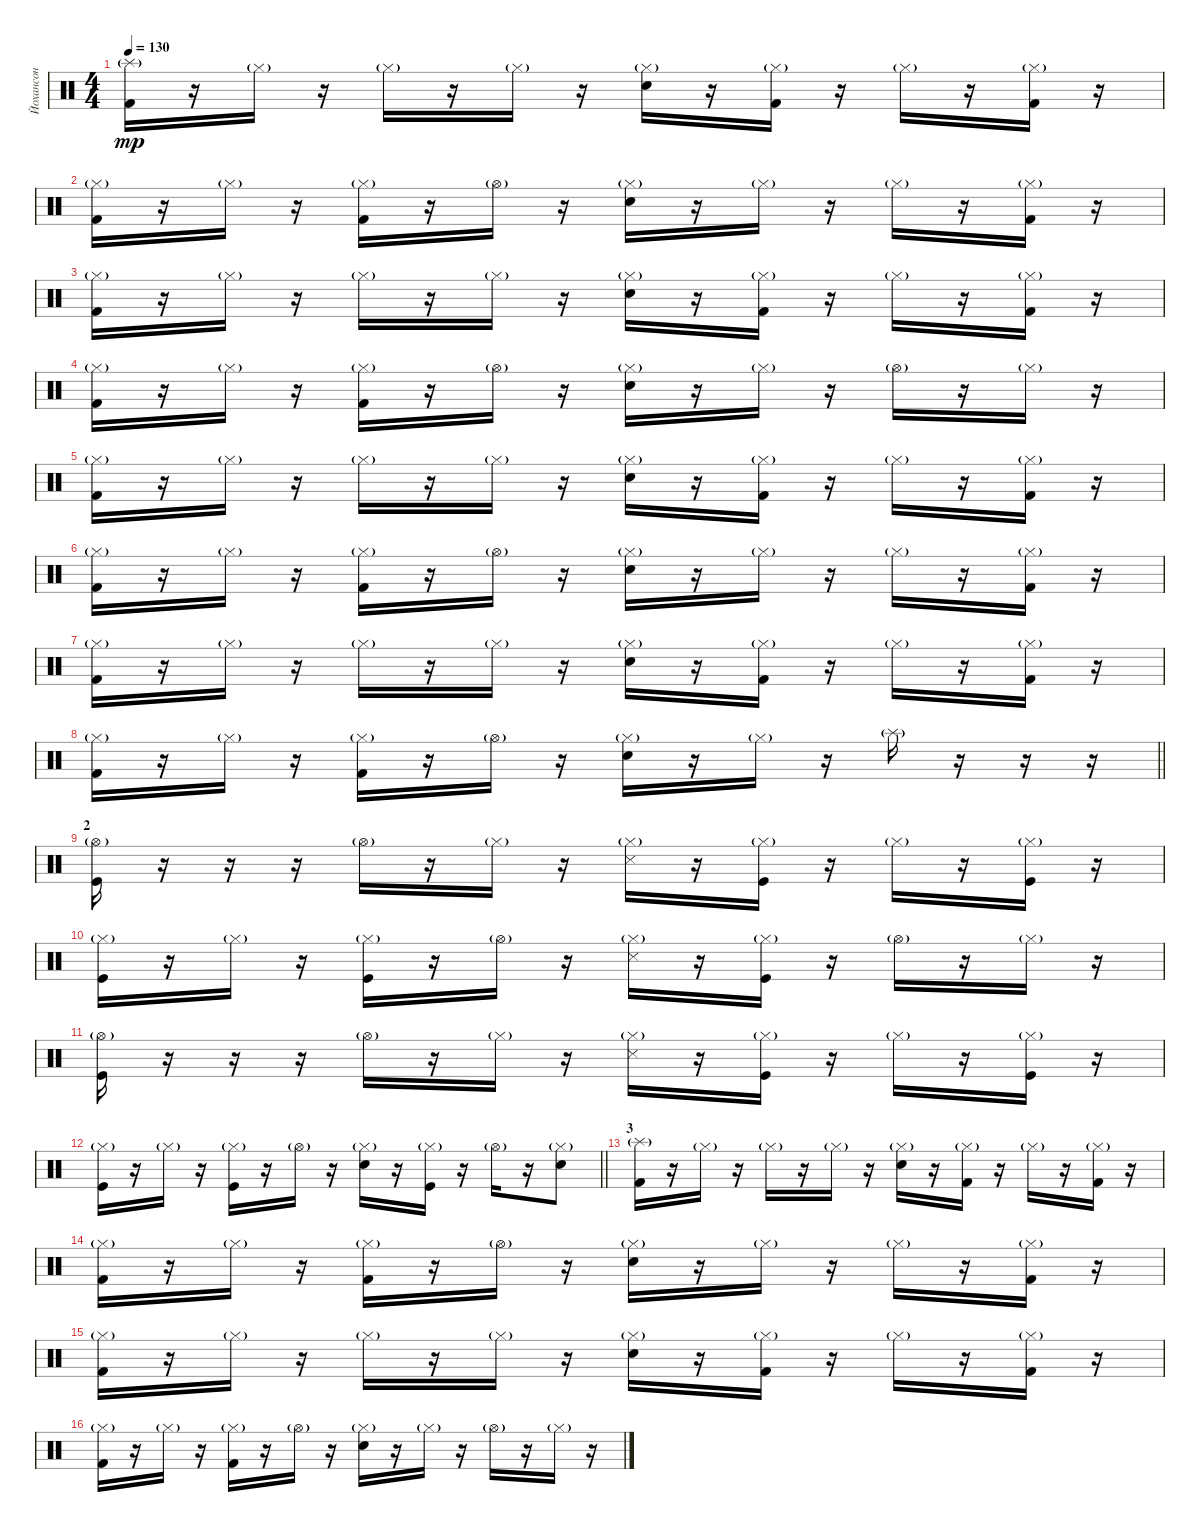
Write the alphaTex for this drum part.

\track ("Йохансон" "Йохансон") {instrument percussion}
\staff {score}
\articulation defaults
\ts (4 4)
\tempo 130
\clef neutral
\ks c
("Splash (hit)"{g} "Kick (hit) 2").16{dy mp} r.16 "Hi-Hat (closed)"{g}.16 r.16 "Hi-Hat (closed)"{g}.16 r.16 "Hi-Hat (closed)"{g}.16 r.16 ("Hi-Hat (closed)"{g} "Snare (hit) 2").16 r.16 ("Hi-Hat (closed)"{g} "Kick (hit) 2").16 r.16 "Hi-Hat (closed)"{g}.16 r.16 ("Hi-Hat (closed)"{g} "Kick (hit) 2").16 r.16 |
("Hi-Hat (closed)"{g} "Kick (hit) 2").16 r.16 "Hi-Hat (closed)"{g}.16 r.16 ("Hi-Hat (closed)"{g} "Kick (hit) 2").16 r.16 "Hi-Hat (open)"{g}.16 r.16 ("Hi-Hat (closed)"{g} "Snare (hit) 2").16 r.16 "Hi-Hat (closed)"{g}.16 r.16 "Hi-Hat (closed)"{g}.16 r.16 ("Hi-Hat (closed)"{g} "Kick (hit) 2").16 r.16 |
("Hi-Hat (closed)"{g} "Kick (hit) 2").16 r.16 "Hi-Hat (closed)"{g}.16 r.16 "Hi-Hat (closed)"{g}.16 r.16 "Hi-Hat (closed)"{g}.16 r.16 ("Hi-Hat (closed)"{g} "Snare (hit) 2").16 r.16 ("Hi-Hat (closed)"{g} "Kick (hit) 2").16 r.16 "Hi-Hat (closed)"{g}.16 r.16 ("Hi-Hat (closed)"{g} "Kick (hit) 2").16 r.16 |
("Hi-Hat (closed)"{g} "Kick (hit) 2").16 r.16 "Hi-Hat (closed)"{g}.16 r.16 ("Hi-Hat (closed)"{g} "Kick (hit) 2").16 r.16 "Hi-Hat (open)"{g}.16 r.16 ("Hi-Hat (closed)"{g} "Snare (hit) 2").16 r.16 "Hi-Hat (closed)"{g}.16 r.16 "Hi-Hat (open)"{g}.16 r.16 "Hi-Hat (closed)"{g}.16 r.16 |
("Hi-Hat (closed)"{g} "Kick (hit) 2").16 r.16 "Hi-Hat (closed)"{g}.16 r.16 "Hi-Hat (closed)"{g}.16 r.16 "Hi-Hat (closed)"{g}.16 r.16 ("Hi-Hat (closed)"{g} "Snare (hit) 2").16 r.16 ("Hi-Hat (closed)"{g} "Kick (hit) 2").16 r.16 "Hi-Hat (closed)"{g}.16 r.16 ("Hi-Hat (closed)"{g} "Kick (hit) 2").16 r.16 |
("Hi-Hat (closed)"{g} "Kick (hit) 2").16 r.16 "Hi-Hat (closed)"{g}.16 r.16 ("Hi-Hat (closed)"{g} "Kick (hit) 2").16 r.16 "Hi-Hat (open)"{g}.16 r.16 ("Hi-Hat (closed)"{g} "Snare (hit) 2").16 r.16 "Hi-Hat (closed)"{g}.16 r.16 "Hi-Hat (closed)"{g}.16 r.16 ("Hi-Hat (closed)"{g} "Kick (hit) 2").16 r.16 |
("Hi-Hat (closed)"{g} "Kick (hit) 2").16 r.16 "Hi-Hat (closed)"{g}.16 r.16 "Hi-Hat (closed)"{g}.16 r.16 "Hi-Hat (closed)"{g}.16 r.16 ("Hi-Hat (closed)"{g} "Snare (hit) 2").16 r.16 ("Hi-Hat (closed)"{g} "Kick (hit) 2").16 r.16 "Hi-Hat (closed)"{g}.16 r.16 ("Hi-Hat (closed)"{g} "Kick (hit) 2").16 r.16 |
\barLineRight lightlight
("Hi-Hat (closed)"{g} "Kick (hit) 2").16 r.16 "Hi-Hat (closed)"{g}.16 r.16 ("Hi-Hat (closed)"{g} "Kick (hit) 2").16 r.16 "Hi-Hat (open)"{g}.16 r.16 ("Hi-Hat (closed)"{g} "Snare (hit) 2").16 r.16 "Hi-Hat (closed)"{g}.16 r.16 "Splash (hit)"{g}.16 r.16 r.16 r.16 |
\section ("" "2")
("Hi-Hat (open)"{g} "Kick (hit)").16 r.16 r.16 r.16 "Hi-Hat (open)"{g}.16 r.16 "Hi-Hat (closed)"{g}.16 r.16 ("Hi-Hat (closed)"{g} "Snare (side stick) 3").16 r.16 ("Hi-Hat (closed)"{g} "Kick (hit)").16 r.16 "Hi-Hat (closed)"{g}.16 r.16 ("Hi-Hat (closed)"{g} "Kick (hit)").16 r.16 |
("Hi-Hat (closed)"{g} "Kick (hit)").16 r.16 "Hi-Hat (closed)"{g}.16 r.16 ("Hi-Hat (closed)"{g} "Kick (hit)").16 r.16 "Hi-Hat (open)"{g}.16 r.16 ("Hi-Hat (closed)"{g} "Snare (side stick) 3").16 r.16 ("Hi-Hat (closed)"{g} "Kick (hit)").16 r.16 "Hi-Hat (open)"{g}.16 r.16 "Hi-Hat (closed)"{g}.16 r.16 |
("Hi-Hat (open)"{g} "Kick (hit)").16 r.16 r.16 r.16 "Hi-Hat (open)"{g}.16 r.16 "Hi-Hat (closed)"{g}.16 r.16 ("Hi-Hat (closed)"{g} "Snare (side stick) 3").16 r.16 ("Hi-Hat (closed)"{g} "Kick (hit)").16 r.16 "Hi-Hat (closed)"{g}.16 r.16 ("Hi-Hat (closed)"{g} "Kick (hit)").16 r.16 |
\barLineRight lightlight
("Hi-Hat (closed)"{g} "Kick (hit)").16 r.16 "Hi-Hat (closed)"{g}.16 r.16 ("Hi-Hat (closed)"{g} "Kick (hit)").16 r.16 "Hi-Hat (open)"{g}.16 r.16 ("Hi-Hat (closed)"{g} "Snare (hit) 2").16 r.16 ("Hi-Hat (closed)"{g} "Kick (hit)").16 r.16 "Hi-Hat (open)"{g}.16 r.16 ("Hi-Hat (closed)"{g} "Snare (hit) 2").8 |
\section ("" "3")
("Splash (hit)"{g} "Kick (hit) 2").16 r.16 "Hi-Hat (closed)"{g}.16 r.16 "Hi-Hat (closed)"{g}.16 r.16 "Hi-Hat (closed)"{g}.16 r.16 ("Hi-Hat (closed)"{g} "Snare (hit) 2").16 r.16 ("Hi-Hat (closed)"{g} "Kick (hit) 2").16 r.16 "Hi-Hat (closed)"{g}.16 r.16 ("Hi-Hat (closed)"{g} "Kick (hit) 2").16 r.16 |
("Hi-Hat (closed)"{g} "Kick (hit) 2").16 r.16 "Hi-Hat (closed)"{g}.16 r.16 ("Hi-Hat (closed)"{g} "Kick (hit) 2").16 r.16 "Hi-Hat (open)"{g}.16 r.16 ("Hi-Hat (closed)"{g} "Snare (hit) 2").16 r.16 "Hi-Hat (closed)"{g}.16 r.16 "Hi-Hat (closed)"{g}.16 r.16 ("Hi-Hat (closed)"{g} "Kick (hit) 2").16 r.16 |
("Hi-Hat (closed)"{g} "Kick (hit) 2").16 r.16 "Hi-Hat (closed)"{g}.16 r.16 "Hi-Hat (closed)"{g}.16 r.16 "Hi-Hat (closed)"{g}.16 r.16 ("Hi-Hat (closed)"{g} "Snare (hit) 2").16 r.16 ("Hi-Hat (closed)"{g} "Kick (hit) 2").16 r.16 "Hi-Hat (closed)"{g}.16 r.16 ("Hi-Hat (closed)"{g} "Kick (hit) 2").16 r.16 |
("Hi-Hat (closed)"{g} "Kick (hit) 2").16 r.16 "Hi-Hat (closed)"{g}.16 r.16 ("Hi-Hat (closed)"{g} "Kick (hit) 2").16 r.16 "Hi-Hat (open)"{g}.16 r.16 ("Hi-Hat (closed)"{g} "Snare (hit) 2").16 r.16 "Hi-Hat (closed)"{g}.16 r.16 "Hi-Hat (open)"{g}.16 r.16 "Hi-Hat (closed)"{g}.16 r.16
